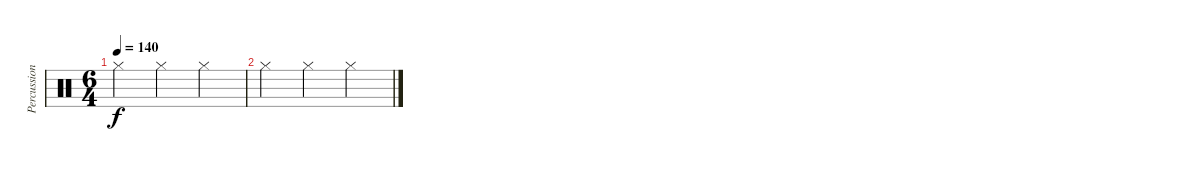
\track ("Percussions" "Percussion") {instrument percussion}
\staff {score}
\articulation defaults
\ts (6 4)
\tempo 140
\clef neutral
\ks c "Hi-Hat (closed)".2{dy f} "Hi-Hat (closed)".2 "Hi-Hat (closed)".2
|
"Hi-Hat (closed)".2 "Hi-Hat (closed)".2 "Hi-Hat (closed)".2
